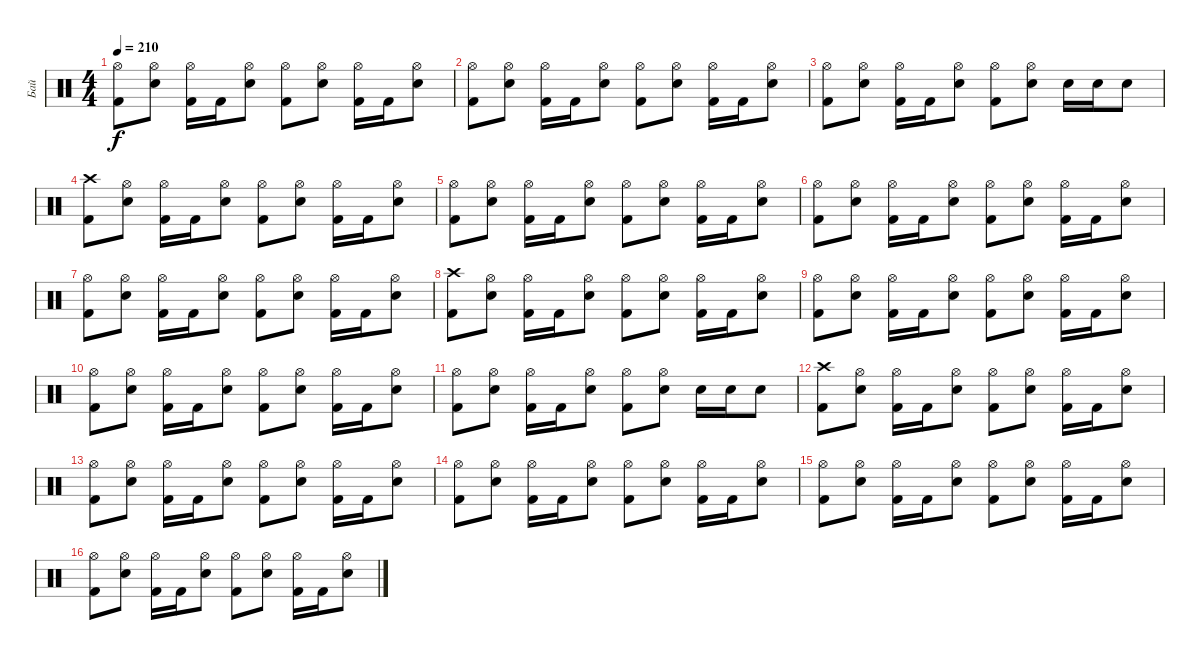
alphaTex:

\track ("Бай" "Бай") {instrument percussion}
\staff {score}
\articulation defaults
\ts (4 4)
\tempo 210
\clef neutral
\ks c
("Hi-Hat (open)" "Kick (hit) 2").8{dy f} ("Hi-Hat (open)" "Electric Snare (hit)").8 ("Hi-Hat (open)" "Kick (hit) 2").16 "Kick (hit) 2".16 ("Hi-Hat (open)" "Electric Snare (hit)").8 ("Hi-Hat (open)" "Kick (hit) 2").8 ("Hi-Hat (open)" "Electric Snare (hit)").8 ("Hi-Hat (open)" "Kick (hit) 2").16 "Kick (hit) 2".16 ("Hi-Hat (open)" "Electric Snare (hit)").8 |
("Hi-Hat (open)" "Kick (hit) 2").8 ("Hi-Hat (open)" "Electric Snare (hit)").8 ("Hi-Hat (open)" "Kick (hit) 2").16 "Kick (hit) 2".16 ("Hi-Hat (open)" "Electric Snare (hit)").8 ("Hi-Hat (open)" "Kick (hit) 2").8 ("Hi-Hat (open)" "Electric Snare (hit)").8 ("Hi-Hat (open)" "Kick (hit) 2").16 "Kick (hit) 2".16 ("Hi-Hat (open)" "Electric Snare (hit)").8 |
("Hi-Hat (open)" "Kick (hit) 2").8 ("Hi-Hat (open)" "Electric Snare (hit)").8 ("Hi-Hat (open)" "Kick (hit) 2").16 "Kick (hit) 2".16 ("Hi-Hat (open)" "Electric Snare (hit)").8 ("Hi-Hat (open)" "Kick (hit) 2").8 ("Hi-Hat (open)" "Electric Snare (hit)").8 "Electric Snare (hit)".16 "Electric Snare (hit)".16 "Electric Snare (hit)".8 |
("Crash high (hit)" "Kick (hit) 2").8 ("Hi-Hat (open)" "Electric Snare (hit)").8 ("Hi-Hat (open)" "Kick (hit) 2").16 "Kick (hit) 2".16 ("Hi-Hat (open)" "Electric Snare (hit)").8 ("Hi-Hat (open)" "Kick (hit) 2").8 ("Hi-Hat (open)" "Electric Snare (hit)").8 ("Hi-Hat (open)" "Kick (hit) 2").16 "Kick (hit) 2".16 ("Hi-Hat (open)" "Electric Snare (hit)").8 |
("Hi-Hat (open)" "Kick (hit) 2").8 ("Hi-Hat (open)" "Electric Snare (hit)").8 ("Hi-Hat (open)" "Kick (hit) 2").16 "Kick (hit) 2".16 ("Hi-Hat (open)" "Electric Snare (hit)").8 ("Hi-Hat (open)" "Kick (hit) 2").8 ("Hi-Hat (open)" "Electric Snare (hit)").8 ("Hi-Hat (open)" "Kick (hit) 2").16 "Kick (hit) 2".16 ("Hi-Hat (open)" "Electric Snare (hit)").8 |
("Hi-Hat (open)" "Kick (hit) 2").8 ("Hi-Hat (open)" "Electric Snare (hit)").8 ("Hi-Hat (open)" "Kick (hit) 2").16 "Kick (hit) 2".16 ("Hi-Hat (open)" "Electric Snare (hit)").8 ("Hi-Hat (open)" "Kick (hit) 2").8 ("Hi-Hat (open)" "Electric Snare (hit)").8 ("Hi-Hat (open)" "Kick (hit) 2").16 "Kick (hit) 2".16 ("Hi-Hat (open)" "Electric Snare (hit)").8 |
("Hi-Hat (open)" "Kick (hit) 2").8 ("Hi-Hat (open)" "Electric Snare (hit)").8 ("Hi-Hat (open)" "Kick (hit) 2").16 "Kick (hit) 2".16 ("Hi-Hat (open)" "Electric Snare (hit)").8 ("Hi-Hat (open)" "Kick (hit) 2").8 ("Hi-Hat (open)" "Electric Snare (hit)").8 ("Hi-Hat (open)" "Kick (hit) 2").16 "Kick (hit) 2".16 ("Hi-Hat (open)" "Electric Snare (hit)").8 |
("Crash high (hit)" "Kick (hit) 2").8 ("Hi-Hat (open)" "Electric Snare (hit)").8 ("Hi-Hat (open)" "Kick (hit) 2").16 "Kick (hit) 2".16 ("Hi-Hat (open)" "Electric Snare (hit)").8 ("Hi-Hat (open)" "Kick (hit) 2").8 ("Hi-Hat (open)" "Electric Snare (hit)").8 ("Hi-Hat (open)" "Kick (hit) 2").16 "Kick (hit) 2".16 ("Hi-Hat (open)" "Electric Snare (hit)").8 |
("Hi-Hat (open)" "Kick (hit) 2").8 ("Hi-Hat (open)" "Electric Snare (hit)").8 ("Hi-Hat (open)" "Kick (hit) 2").16 "Kick (hit) 2".16 ("Hi-Hat (open)" "Electric Snare (hit)").8 ("Hi-Hat (open)" "Kick (hit) 2").8 ("Hi-Hat (open)" "Electric Snare (hit)").8 ("Hi-Hat (open)" "Kick (hit) 2").16 "Kick (hit) 2".16 ("Hi-Hat (open)" "Electric Snare (hit)").8 |
("Hi-Hat (open)" "Kick (hit) 2").8 ("Hi-Hat (open)" "Electric Snare (hit)").8 ("Hi-Hat (open)" "Kick (hit) 2").16 "Kick (hit) 2".16 ("Hi-Hat (open)" "Electric Snare (hit)").8 ("Hi-Hat (open)" "Kick (hit) 2").8 ("Hi-Hat (open)" "Electric Snare (hit)").8 ("Hi-Hat (open)" "Kick (hit) 2").16 "Kick (hit) 2".16 ("Hi-Hat (open)" "Electric Snare (hit)").8 |
("Hi-Hat (open)" "Kick (hit) 2").8 ("Hi-Hat (open)" "Electric Snare (hit)").8 ("Hi-Hat (open)" "Kick (hit) 2").16 "Kick (hit) 2".16 ("Hi-Hat (open)" "Electric Snare (hit)").8 ("Hi-Hat (open)" "Kick (hit) 2").8 ("Hi-Hat (open)" "Electric Snare (hit)").8 "Electric Snare (hit)".16 "Electric Snare (hit)".16 "Electric Snare (hit)".8 |
("Crash high (hit)" "Kick (hit) 2").8 ("Hi-Hat (open)" "Electric Snare (hit)").8 ("Hi-Hat (open)" "Kick (hit) 2").16 "Kick (hit) 2".16 ("Hi-Hat (open)" "Electric Snare (hit)").8 ("Hi-Hat (open)" "Kick (hit) 2").8 ("Hi-Hat (open)" "Electric Snare (hit)").8 ("Hi-Hat (open)" "Kick (hit) 2").16 "Kick (hit) 2".16 ("Hi-Hat (open)" "Electric Snare (hit)").8 |
("Hi-Hat (open)" "Kick (hit) 2").8 ("Hi-Hat (open)" "Electric Snare (hit)").8 ("Hi-Hat (open)" "Kick (hit) 2").16 "Kick (hit) 2".16 ("Hi-Hat (open)" "Electric Snare (hit)").8 ("Hi-Hat (open)" "Kick (hit) 2").8 ("Hi-Hat (open)" "Electric Snare (hit)").8 ("Hi-Hat (open)" "Kick (hit) 2").16 "Kick (hit) 2".16 ("Hi-Hat (open)" "Electric Snare (hit)").8 |
("Hi-Hat (open)" "Kick (hit) 2").8 ("Hi-Hat (open)" "Electric Snare (hit)").8 ("Hi-Hat (open)" "Kick (hit) 2").16 "Kick (hit) 2".16 ("Hi-Hat (open)" "Electric Snare (hit)").8 ("Hi-Hat (open)" "Kick (hit) 2").8 ("Hi-Hat (open)" "Electric Snare (hit)").8 ("Hi-Hat (open)" "Kick (hit) 2").16 "Kick (hit) 2".16 ("Hi-Hat (open)" "Electric Snare (hit)").8 |
("Hi-Hat (open)" "Kick (hit) 2").8 ("Hi-Hat (open)" "Electric Snare (hit)").8 ("Hi-Hat (open)" "Kick (hit) 2").16 "Kick (hit) 2".16 ("Hi-Hat (open)" "Electric Snare (hit)").8 ("Hi-Hat (open)" "Kick (hit) 2").8 ("Hi-Hat (open)" "Electric Snare (hit)").8 ("Hi-Hat (open)" "Kick (hit) 2").16 "Kick (hit) 2".16 ("Hi-Hat (open)" "Electric Snare (hit)").8 |
("Hi-Hat (open)" "Kick (hit) 2").8 ("Hi-Hat (open)" "Electric Snare (hit)").8 ("Hi-Hat (open)" "Kick (hit) 2").16 "Kick (hit) 2".16 ("Hi-Hat (open)" "Electric Snare (hit)").8 ("Hi-Hat (open)" "Kick (hit) 2").8 ("Hi-Hat (open)" "Electric Snare (hit)").8 ("Hi-Hat (open)" "Kick (hit) 2").16 "Kick (hit) 2".16 ("Hi-Hat (open)" "Electric Snare (hit)").8
